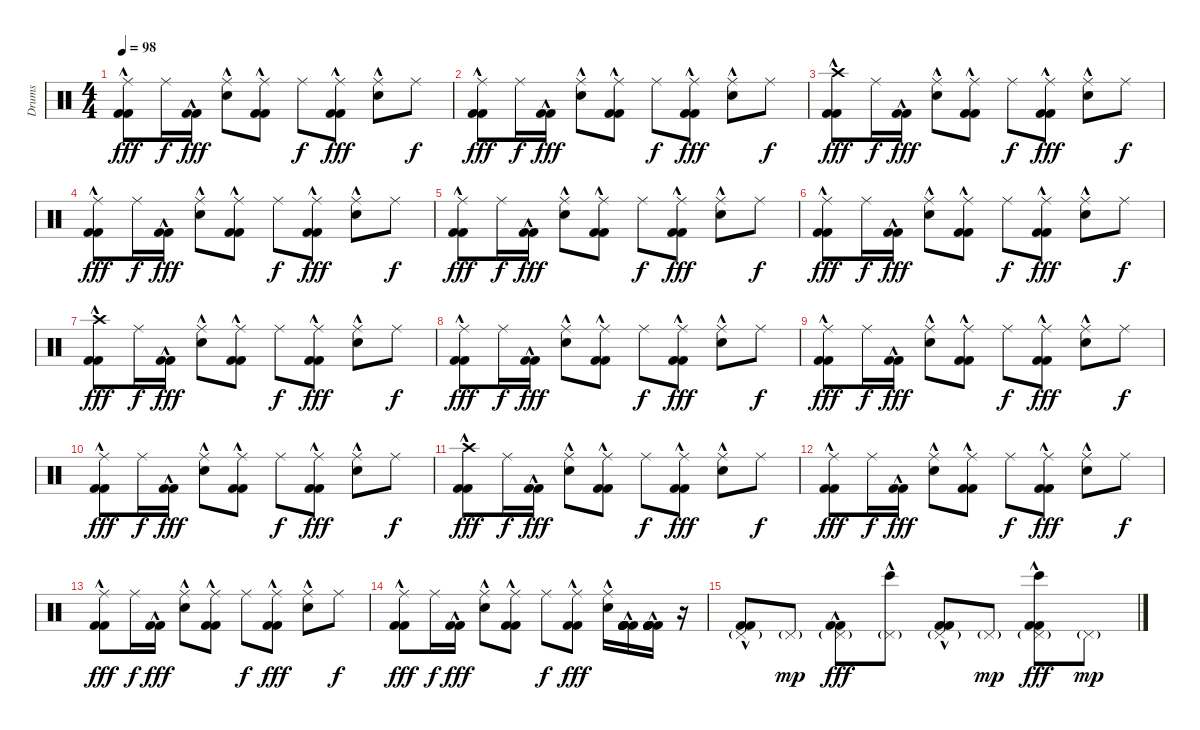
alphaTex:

\track ("Drums" "Drums") {instrument percussion}
\staff {score}
\articulation defaults
\ts (4 4)
\tempo 98
\clef neutral
\ks c
("Kick (hit) 2"{hac} "Ride (middle)" "Kick (hit) 2"{hac}).8{dy fff} "Ride (middle)".16{dy f} ("Kick (hit) 2"{hac} "Kick (hit) 2"{hac}).16{dy fff} ("Ride (middle)" "Electric Snare (hit)"{hac}).8 ("Kick (hit) 2"{hac} "Ride (middle)" "Kick (hit) 2"{hac}).8 "Ride (middle)".8{dy f} ("Kick (hit) 2"{hac} "Ride (middle)" "Kick (hit) 2"{hac}).8{dy fff} ("Ride (middle)" "Electric Snare (hit)"{hac}).8 "Ride (middle)".8{dy f} |
("Kick (hit) 2"{hac} "Ride (middle)" "Kick (hit) 2"{hac}).8{dy fff} "Ride (middle)".16{dy f} ("Kick (hit) 2"{hac} "Kick (hit) 2"{hac}).16{dy fff} ("Ride (middle)" "Electric Snare (hit)"{hac}).8 ("Kick (hit) 2"{hac} "Ride (middle)" "Kick (hit) 2"{hac}).8 "Ride (middle)".8{dy f} ("Kick (hit) 2"{hac} "Ride (middle)" "Kick (hit) 2"{hac}).8{dy fff} ("Ride (middle)" "Electric Snare (hit)"{hac}).8 "Ride (middle)".8{dy f} |
("Kick (hit) 2"{hac} "Crash high (hit)" "Kick (hit) 2"{hac}).8{dy fff} "Ride (middle)".16{dy f} ("Kick (hit) 2"{hac} "Kick (hit) 2"{hac}).16{dy fff} ("Ride (middle)" "Electric Snare (hit)"{hac}).8 ("Kick (hit) 2"{hac} "Ride (middle)" "Kick (hit) 2"{hac}).8 "Ride (middle)".8{dy f} ("Kick (hit) 2"{hac} "Ride (middle)" "Kick (hit) 2"{hac}).8{dy fff} ("Ride (middle)" "Electric Snare (hit)"{hac}).8 "Ride (middle)".8{dy f} |
("Kick (hit) 2"{hac} "Ride (middle)" "Kick (hit) 2"{hac}).8{dy fff} "Ride (middle)".16{dy f} ("Kick (hit) 2"{hac} "Kick (hit) 2"{hac}).16{dy fff} ("Ride (middle)" "Electric Snare (hit)"{hac}).8 ("Kick (hit) 2"{hac} "Ride (middle)" "Kick (hit) 2"{hac}).8 "Ride (middle)".8{dy f} ("Kick (hit) 2"{hac} "Ride (middle)" "Kick (hit) 2"{hac}).8{dy fff} ("Ride (middle)" "Electric Snare (hit)"{hac}).8 "Ride (middle)".8{dy f} |
("Kick (hit) 2"{hac} "Ride (middle)" "Kick (hit) 2"{hac}).8{dy fff} "Ride (middle)".16{dy f} ("Kick (hit) 2"{hac} "Kick (hit) 2"{hac}).16{dy fff} ("Ride (middle)" "Electric Snare (hit)"{hac}).8 ("Kick (hit) 2"{hac} "Ride (middle)" "Kick (hit) 2"{hac}).8 "Ride (middle)".8{dy f} ("Kick (hit) 2"{hac} "Ride (middle)" "Kick (hit) 2"{hac}).8{dy fff} ("Ride (middle)" "Electric Snare (hit)"{hac}).8 "Ride (middle)".8{dy f} |
("Kick (hit) 2"{hac} "Ride (middle)" "Kick (hit) 2"{hac}).8{dy fff} "Ride (middle)".16{dy f} ("Kick (hit) 2"{hac} "Kick (hit) 2"{hac}).16{dy fff} ("Ride (middle)" "Electric Snare (hit)"{hac}).8 ("Kick (hit) 2"{hac} "Ride (middle)" "Kick (hit) 2"{hac}).8 "Ride (middle)".8{dy f} ("Kick (hit) 2"{hac} "Ride (middle)" "Kick (hit) 2"{hac}).8{dy fff} ("Ride (middle)" "Electric Snare (hit)"{hac}).8 "Ride (middle)".8{dy f} |
("Kick (hit) 2"{hac} "Crash high (hit)" "Kick (hit) 2"{hac}).8{dy fff} "Ride (middle)".16{dy f} ("Kick (hit) 2"{hac} "Kick (hit) 2"{hac}).16{dy fff} ("Ride (middle)" "Electric Snare (hit)"{hac}).8 ("Kick (hit) 2"{hac} "Ride (middle)" "Kick (hit) 2"{hac}).8 "Ride (middle)".8{dy f} ("Kick (hit) 2"{hac} "Ride (middle)" "Kick (hit) 2"{hac}).8{dy fff} ("Ride (middle)" "Electric Snare (hit)"{hac}).8 "Ride (middle)".8{dy f} |
("Kick (hit) 2"{hac} "Ride (middle)" "Kick (hit) 2"{hac}).8{dy fff} "Ride (middle)".16{dy f} ("Kick (hit) 2"{hac} "Kick (hit) 2"{hac}).16{dy fff} ("Ride (middle)" "Electric Snare (hit)"{hac}).8 ("Kick (hit) 2"{hac} "Ride (middle)" "Kick (hit) 2"{hac}).8 "Ride (middle)".8{dy f} ("Kick (hit) 2"{hac} "Ride (middle)" "Kick (hit) 2"{hac}).8{dy fff} ("Ride (middle)" "Electric Snare (hit)"{hac}).8 "Ride (middle)".8{dy f} |
("Kick (hit) 2"{hac} "Ride (middle)" "Kick (hit) 2"{hac}).8{dy fff} "Ride (middle)".16{dy f} ("Kick (hit) 2"{hac} "Kick (hit) 2"{hac}).16{dy fff} ("Ride (middle)" "Electric Snare (hit)"{hac}).8 ("Kick (hit) 2"{hac} "Ride (middle)" "Kick (hit) 2"{hac}).8 "Ride (middle)".8{dy f} ("Kick (hit) 2"{hac} "Ride (middle)" "Kick (hit) 2"{hac}).8{dy fff} ("Ride (middle)" "Electric Snare (hit)"{hac}).8 "Ride (middle)".8{dy f} |
("Kick (hit) 2"{hac} "Ride (middle)" "Kick (hit) 2"{hac}).8{dy fff} "Ride (middle)".16{dy f} ("Kick (hit) 2"{hac} "Kick (hit) 2"{hac}).16{dy fff} ("Ride (middle)" "Electric Snare (hit)"{hac}).8 ("Kick (hit) 2"{hac} "Ride (middle)" "Kick (hit) 2"{hac}).8 "Ride (middle)".8{dy f} ("Kick (hit) 2"{hac} "Ride (middle)" "Kick (hit) 2"{hac}).8{dy fff} ("Ride (middle)" "Electric Snare (hit)"{hac}).8 "Ride (middle)".8{dy f} |
("Kick (hit) 2"{hac} "Crash high (hit)" "Kick (hit) 2"{hac}).8{dy fff} "Ride (middle)".16{dy f} ("Kick (hit) 2"{hac} "Kick (hit) 2"{hac}).16{dy fff} ("Ride (middle)" "Electric Snare (hit)"{hac}).8 ("Kick (hit) 2"{hac} "Ride (middle)" "Kick (hit) 2"{hac}).8 "Ride (middle)".8{dy f} ("Kick (hit) 2"{hac} "Ride (middle)" "Kick (hit) 2"{hac}).8{dy fff} ("Ride (middle)" "Electric Snare (hit)"{hac}).8 "Ride (middle)".8{dy f} |
("Kick (hit) 2"{hac} "Ride (middle)" "Kick (hit) 2"{hac}).8{dy fff} "Ride (middle)".16{dy f} ("Kick (hit) 2"{hac} "Kick (hit) 2"{hac}).16{dy fff} ("Ride (middle)" "Electric Snare (hit)"{hac}).8 ("Kick (hit) 2"{hac} "Ride (middle)" "Kick (hit) 2"{hac}).8 "Ride (middle)".8{dy f} ("Kick (hit) 2"{hac} "Ride (middle)" "Kick (hit) 2"{hac}).8{dy fff} ("Ride (middle)" "Electric Snare (hit)"{hac}).8 "Ride (middle)".8{dy f} |
("Kick (hit) 2"{hac} "Ride (middle)" "Kick (hit) 2"{hac}).8{dy fff volume 5} "Ride (middle)".16{dy f} ("Kick (hit) 2"{hac} "Kick (hit) 2"{hac}).16{dy fff} ("Ride (middle)" "Electric Snare (hit)"{hac}).8 ("Kick (hit) 2"{hac} "Ride (middle)" "Kick (hit) 2"{hac}).8 "Ride (middle)".8{dy f} ("Kick (hit) 2"{hac} "Ride (middle)" "Kick (hit) 2"{hac}).8{dy fff} ("Ride (middle)" "Electric Snare (hit)"{hac}).8 "Ride (middle)".8{dy f} |
("Kick (hit) 2"{hac} "Ride (middle)" "Kick (hit) 2"{hac}).8{dy fff} "Ride (middle)".16{dy f} ("Kick (hit) 2"{hac} "Kick (hit) 2"{hac}).16{dy fff} ("Ride (middle)" "Electric Snare (hit)"{hac}).8 ("Kick (hit) 2"{hac} "Ride (middle)" "Kick (hit) 2"{hac}).8 "Ride (middle)".8{dy f} ("Kick (hit) 2"{hac} "Ride (middle)" "Kick (hit) 2"{hac}).8{dy fff} ("Ride (middle)" "Electric Snare (hit)"{hac}).16 ("Kick (hit) 2"{hac} "Kick (hit) 2"{hac} "Kick (hit) 2"{hac} "Kick (hit) 2"{hac} "Kick (hit) 2"{hac} "Kick (hit) 2"{hac}).16 ("Kick (hit) 2"{hac} "Kick (hit) 2"{hac} "Kick (hit) 2"{hac} "Kick (hit) 2"{hac} "Kick (hit) 2"{hac} "Kick (hit) 2"{hac}).16 r.16 |
("Kick (hit) 2"{hac} "Pedal Hi-Hat (hit)"{g} "Kick (hit) 2"{hac}).8{volume 4} "Pedal Hi-Hat (hit)"{g}.8{dy mp} ("Kick (hit) 2"{hac} "Pedal Hi-Hat (hit)"{g} "Kick (hit) 2"{hac}).8{dy fff} ("Pedal Hi-Hat (hit)"{g} "Bongo High (hit)"{hac}).8 ("Kick (hit) 2"{hac} "Pedal Hi-Hat (hit)"{g} "Kick (hit) 2"{hac}).8 "Pedal Hi-Hat (hit)"{g}.8{dy mp} ("Kick (hit) 2"{hac} "Pedal Hi-Hat (hit)"{g} "Bongo High (hit)"{hac} "Kick (hit) 2"{hac}).8{dy fff} "Pedal Hi-Hat (hit)"{g}.8{dy mp}
